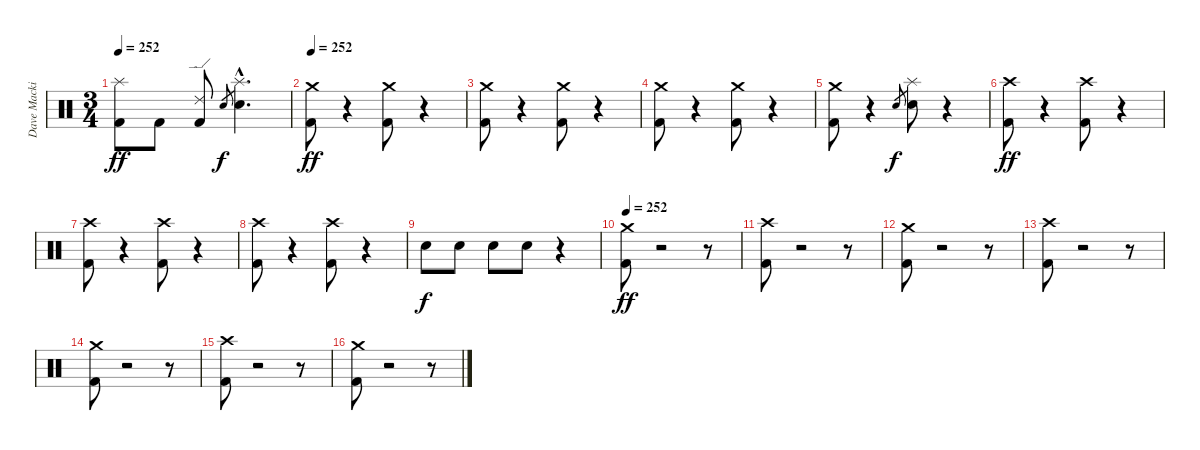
\track ("Dave Mackintosh" "Dave Macki") {instrument percussion}
\staff {score}
\articulation defaults
\ts (3 4)
\tempo 252
\clef neutral
\ks c
("Splash (hit)" "Kick (hit) 2").8{dy ff} "Kick (hit) 2".8 ("Ride (edge) 2" "Kick (hit) 2").8 "Electric Snare (hit)".8{gr dy f} ("Splash (hit)"{hac} "Electric Snare (hit)"{hac}).4{d} |
\tempo 252
("Crash medium (hit)" "Kick (hit) 2").8{dy ff} r.4 ("Crash medium (hit)" "Kick (hit) 2").8 r.4 |
("Crash medium (hit)" "Kick (hit) 2").8 r.4 ("Crash medium (hit)" "Kick (hit) 2").8 r.4 |
("Crash medium (hit)" "Kick (hit) 2").8 r.4 ("Crash medium (hit)" "Kick (hit) 2").8 r.4 |
("Crash medium (hit)" "Kick (hit) 2").8 r.4 "Electric Snare (hit)".8{gr dy f} ("Splash (hit)" "Electric Snare (hit)").8 r.4 |
("Crash high (hit)" "Kick (hit) 2").8{dy ff} r.4 ("Crash high (hit)" "Kick (hit) 2").8 r.4 |
("Crash high (hit)" "Kick (hit) 2").8 r.4 ("Crash high (hit)" "Kick (hit) 2").8 r.4 |
("Crash high (hit)" "Kick (hit) 2").8 r.4 ("Crash high (hit)" "Kick (hit) 2").8 r.4 |
"Electric Snare (hit)".8{dy f} "Electric Snare (hit)".8 "Electric Snare (hit)".8 "Electric Snare (hit)".8 r.4 |
\tempo 252
("Crash medium (hit)" "Kick (hit) 2").8{dy ff} r.2 r.8 |
("Crash high (hit)" "Kick (hit) 2").8 r.2 r.8 |
("Crash medium (hit)" "Kick (hit) 2").8 r.2 r.8 |
("Crash high (hit)" "Kick (hit) 2").8 r.2 r.8 |
("Crash medium (hit)" "Kick (hit) 2").8 r.2 r.8 |
("Crash high (hit)" "Kick (hit) 2").8 r.2 r.8 |
("Crash medium (hit)" "Kick (hit) 2").8 r.2 r.8
